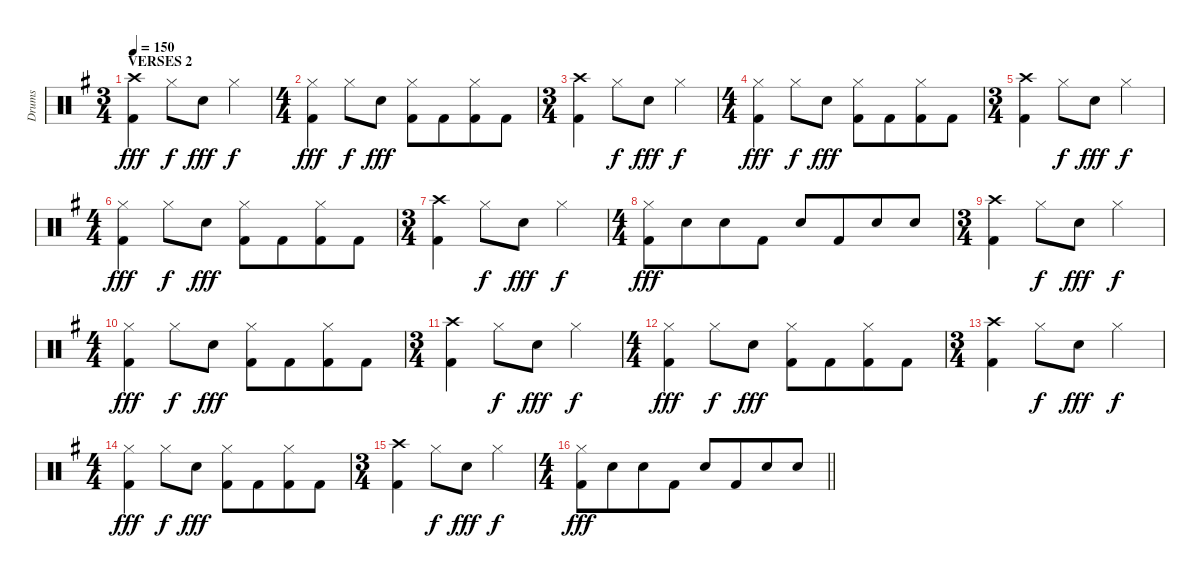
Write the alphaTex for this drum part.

\track ("Drums" "Drums") {instrument percussion}
\staff {score}
\articulation defaults
\ts (3 4)
\section ("" "VERSES 2")
\tempo 150
\clef neutral
\ks eminor
("Crash high (hit)" "Kick (hit) 2").4{dy fff} "Hi-Hat (closed)".8{dy f} "Snare (hit) 2".8{dy fff} "Hi-Hat (closed)".4{dy f} |
\ts (4 4)
("Hi-Hat (closed)" "Kick (hit) 2").4{dy fff} "Hi-Hat (closed)".8{dy f} "Snare (hit) 2".8{dy fff} ("Hi-Hat (closed)" "Kick (hit) 2").8 "Kick (hit) 2".8{beam merge} ("Hi-Hat (closed)" "Kick (hit) 2").8 "Kick (hit) 2".8 |
\ts (3 4)
("Crash high (hit)" "Kick (hit) 2").4 "Hi-Hat (closed)".8{dy f} "Snare (hit) 2".8{dy fff} "Hi-Hat (closed)".4{dy f} |
\ts (4 4)
("Hi-Hat (closed)" "Kick (hit) 2").4{dy fff} "Hi-Hat (closed)".8{dy f} "Snare (hit) 2".8{dy fff} ("Hi-Hat (closed)" "Kick (hit) 2").8 "Kick (hit) 2".8{beam merge} ("Hi-Hat (closed)" "Kick (hit) 2").8 "Kick (hit) 2".8 |
\ts (3 4)
("Crash high (hit)" "Kick (hit) 2").4 "Hi-Hat (closed)".8{dy f} "Snare (hit) 2".8{dy fff} "Hi-Hat (closed)".4{dy f} |
\ts (4 4)
("Hi-Hat (closed)" "Kick (hit) 2").4{dy fff} "Hi-Hat (closed)".8{dy f} "Snare (hit) 2".8{dy fff} ("Hi-Hat (closed)" "Kick (hit) 2").8 "Kick (hit) 2".8{beam merge} ("Hi-Hat (closed)" "Kick (hit) 2").8 "Kick (hit) 2".8 |
\ts (3 4)
("Crash high (hit)" "Kick (hit) 2").4 "Hi-Hat (closed)".8{dy f} "Snare (hit) 2".8{dy fff} "Hi-Hat (closed)".4{dy f} |
\ts (4 4)
("Hi-Hat (closed)" "Kick (hit) 2").8{dy fff} "Snare (hit) 2".8{beam merge} "Snare (hit) 2".8 "Kick (hit) 2".8 "Snare (hit) 2".8 "Kick (hit) 2".8{beam merge} "Snare (hit) 2".8 "Snare (hit) 2".8 |
\ts (3 4)
("Crash high (hit)" "Kick (hit) 2").4 "Hi-Hat (closed)".8{dy f} "Snare (hit) 2".8{dy fff} "Hi-Hat (closed)".4{dy f} |
\ts (4 4)
("Hi-Hat (closed)" "Kick (hit) 2").4{dy fff} "Hi-Hat (closed)".8{dy f} "Snare (hit) 2".8{dy fff} ("Hi-Hat (closed)" "Kick (hit) 2").8 "Kick (hit) 2".8{beam merge} ("Hi-Hat (closed)" "Kick (hit) 2").8 "Kick (hit) 2".8 |
\ts (3 4)
("Crash high (hit)" "Kick (hit) 2").4 "Hi-Hat (closed)".8{dy f} "Snare (hit) 2".8{dy fff} "Hi-Hat (closed)".4{dy f} |
\ts (4 4)
("Hi-Hat (closed)" "Kick (hit) 2").4{dy fff} "Hi-Hat (closed)".8{dy f} "Snare (hit) 2".8{dy fff} ("Hi-Hat (closed)" "Kick (hit) 2").8 "Kick (hit) 2".8{beam merge} ("Hi-Hat (closed)" "Kick (hit) 2").8 "Kick (hit) 2".8 |
\ts (3 4)
("Crash high (hit)" "Kick (hit) 2").4 "Hi-Hat (closed)".8{dy f} "Snare (hit) 2".8{dy fff} "Hi-Hat (closed)".4{dy f} |
\ts (4 4)
("Hi-Hat (closed)" "Kick (hit) 2").4{dy fff} "Hi-Hat (closed)".8{dy f} "Snare (hit) 2".8{dy fff} ("Hi-Hat (closed)" "Kick (hit) 2").8 "Kick (hit) 2".8{beam merge} ("Hi-Hat (closed)" "Kick (hit) 2").8 "Kick (hit) 2".8 |
\ts (3 4)
("Crash high (hit)" "Kick (hit) 2").4 "Hi-Hat (closed)".8{dy f} "Snare (hit) 2".8{dy fff} "Hi-Hat (closed)".4{dy f} |
\ts (4 4)
\barLineRight lightlight
("Hi-Hat (closed)" "Kick (hit) 2").8{dy fff} "Snare (hit) 2".8{beam merge} "Snare (hit) 2".8 "Kick (hit) 2".8 "Snare (hit) 2".8 "Kick (hit) 2".8{beam merge} "Snare (hit) 2".8 "Snare (hit) 2".8
